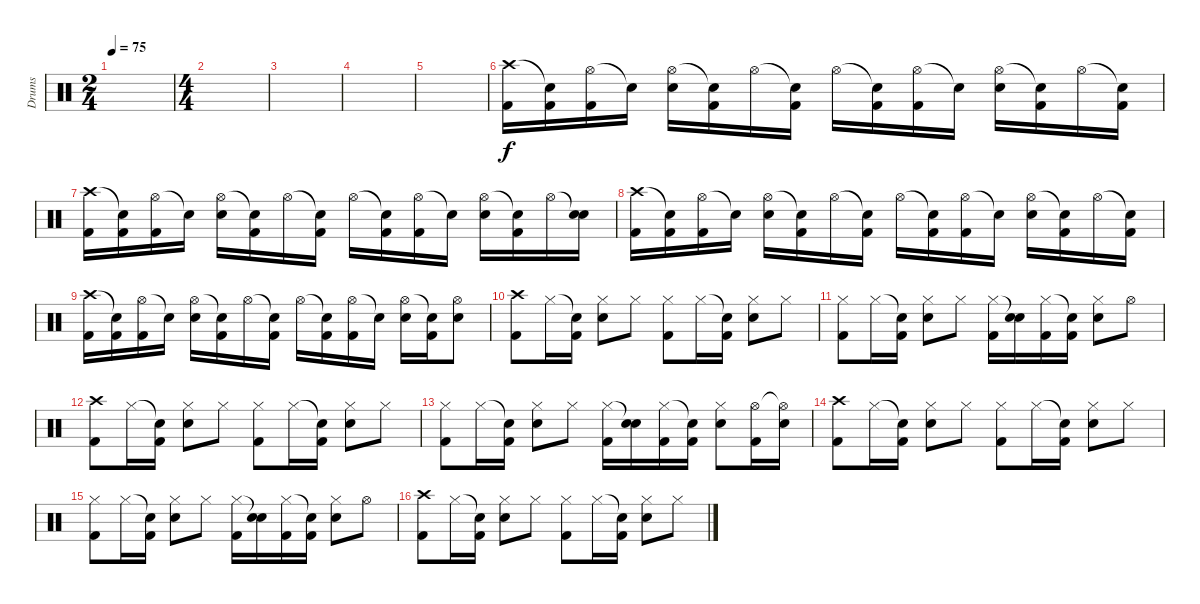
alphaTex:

\track ("Drums" "Drums") {instrument percussion}
\staff {score}
\articulation defaults
\ts (2 4)
\tempo 75
\clef neutral
\ks c
|
\ts (4 4)
|
|
|
|
("Crash high (hit)" "Kick (hit) 2").16 ("Snare (hit)"{t} "Kick (hit) 2").16 ("Hi-Hat (open)" "Kick (hit) 2").16 "Snare (hit)"{t}.16 ("Hi-Hat (open)" "Electric Snare (hit)").16 ("Snare (hit)"{t} "Kick (hit) 2").16 "Hi-Hat (open)".16 ("Snare (hit)"{t} "Kick (hit) 2").16 "Hi-Hat (open)".16 ("Snare (hit)"{t} "Kick (hit) 2").16 ("Hi-Hat (open)" "Kick (hit) 2").16 "Snare (hit)"{t}.16 ("Hi-Hat (open)" "Electric Snare (hit)").16 ("Snare (hit)"{t} "Kick (hit) 2").16 "Hi-Hat (open)".16 ("Snare (hit)"{t} "Kick (hit) 2").16 |
("Crash high (hit)" "Kick (hit) 2").16 ("Snare (hit)"{t} "Kick (hit) 2").16 ("Hi-Hat (open)" "Kick (hit) 2").16 "Snare (hit)"{t}.16 ("Hi-Hat (open)" "Electric Snare (hit)").16 ("Snare (hit)"{t} "Kick (hit) 2").16 "Hi-Hat (open)".16 ("Snare (hit)"{t} "Kick (hit) 2").16 "Hi-Hat (open)".16 ("Snare (hit)"{t} "Kick (hit) 2").16 ("Hi-Hat (open)" "Kick (hit) 2").16 "Snare (hit)"{t}.16 ("Hi-Hat (open)" "Electric Snare (hit)").16 ("Snare (hit)"{t} "Kick (hit) 2").16 "Hi-Hat (open)".16 ("Snare (hit)"{t} "Electric Snare (hit)").16 |
("Crash high (hit)" "Kick (hit) 2").16 ("Snare (hit)"{t} "Kick (hit) 2").16 ("Hi-Hat (open)" "Kick (hit) 2").16 "Snare (hit)"{t}.16 ("Hi-Hat (open)" "Electric Snare (hit)").16 ("Snare (hit)"{t} "Kick (hit) 2").16 "Hi-Hat (open)".16 ("Snare (hit)"{t} "Kick (hit) 2").16 "Hi-Hat (open)".16 ("Snare (hit)"{t} "Kick (hit) 2").16 ("Hi-Hat (open)" "Kick (hit) 2").16 "Snare (hit)"{t}.16 ("Hi-Hat (open)" "Electric Snare (hit)").16 ("Snare (hit)"{t} "Kick (hit) 2").16 "Hi-Hat (open)".16 ("Snare (hit)"{t} "Kick (hit) 2").16 |
("Crash high (hit)" "Kick (hit) 2").16 ("Snare (hit)"{t} "Kick (hit) 2").16 ("Hi-Hat (open)" "Kick (hit) 2").16 "Snare (hit)"{t}.16 ("Hi-Hat (open)" "Electric Snare (hit)").16 ("Snare (hit)"{t} "Kick (hit) 2").16 "Hi-Hat (open)".16 ("Snare (hit)"{t} "Kick (hit) 2").16 "Hi-Hat (open)".16 ("Snare (hit)"{t} "Kick (hit) 2").16 ("Hi-Hat (open)" "Kick (hit) 2").16 "Snare (hit)"{t}.16 ("Hi-Hat (open)" "Electric Snare (hit)").16 ("Snare (hit)"{t} "Kick (hit) 2").16 ("Hi-Hat (open)" "Electric Snare (hit)").8 |
("Crash high (hit)" "Kick (hit) 2").8 "Hi-Hat (closed)".16 ("Snare (hit)"{t} "Kick (hit) 2").16 ("Hi-Hat (closed)" "Electric Snare (hit)").8 "Hi-Hat (closed)".8 ("Hi-Hat (closed)" "Kick (hit) 2").8 "Hi-Hat (closed)".16 ("Snare (hit)"{t} "Kick (hit) 2").16 ("Hi-Hat (closed)" "Electric Snare (hit)").8 "Hi-Hat (closed)".8 |
("Hi-Hat (closed)" "Kick (hit) 2").8 "Hi-Hat (closed)".16 ("Snare (hit)"{t} "Kick (hit) 2").16 ("Hi-Hat (closed)" "Electric Snare (hit)").8 "Hi-Hat (closed)".8 ("Hi-Hat (closed)" "Kick (hit) 2").16 ("Snare (hit)"{t} "Electric Snare (hit)").16 ("Hi-Hat (closed)" "Kick (hit) 2").16 ("Snare (hit)"{t} "Kick (hit) 2").16 ("Hi-Hat (closed)" "Electric Snare (hit)").8 "Hi-Hat (open)".8 |
("Crash high (hit)" "Kick (hit) 2").8 "Hi-Hat (closed)".16 ("Snare (hit)"{t} "Kick (hit) 2").16 ("Hi-Hat (closed)" "Electric Snare (hit)").8 "Hi-Hat (closed)".8 ("Hi-Hat (closed)" "Kick (hit) 2").8 "Hi-Hat (closed)".16 ("Snare (hit)"{t} "Kick (hit) 2").16 ("Hi-Hat (closed)" "Electric Snare (hit)").8 "Hi-Hat (closed)".8 |
("Hi-Hat (closed)" "Kick (hit) 2").8 "Hi-Hat (closed)".16 ("Snare (hit)"{t} "Kick (hit) 2").16 ("Hi-Hat (closed)" "Electric Snare (hit)").8 "Hi-Hat (closed)".8 ("Hi-Hat (closed)" "Kick (hit) 2").16 ("Snare (hit)"{t} "Electric Snare (hit)").16 ("Hi-Hat (closed)" "Kick (hit) 2").16 ("Snare (hit)"{t} "Kick (hit) 2").16 ("Hi-Hat (closed)" "Electric Snare (hit)").8 ("Hi-Hat (open)" "Kick (hit) 2").16 ("Hi-Hat (open)"{t} "Electric Snare (hit)").16 |
("Crash high (hit)" "Kick (hit) 2").8 "Hi-Hat (closed)".16 ("Snare (hit)"{t} "Kick (hit) 2").16 ("Hi-Hat (closed)" "Electric Snare (hit)").8 "Hi-Hat (closed)".8 ("Hi-Hat (closed)" "Kick (hit) 2").8 "Hi-Hat (closed)".16 ("Snare (hit)"{t} "Kick (hit) 2").16 ("Hi-Hat (closed)" "Electric Snare (hit)").8 "Hi-Hat (closed)".8 |
("Hi-Hat (closed)" "Kick (hit) 2").8 "Hi-Hat (closed)".16 ("Snare (hit)"{t} "Kick (hit) 2").16 ("Hi-Hat (closed)" "Electric Snare (hit)").8 "Hi-Hat (closed)".8 ("Hi-Hat (closed)" "Kick (hit) 2").16 ("Snare (hit)"{t} "Electric Snare (hit)").16 ("Hi-Hat (closed)" "Kick (hit) 2").16 ("Snare (hit)"{t} "Kick (hit) 2").16 ("Hi-Hat (closed)" "Electric Snare (hit)").8 "Hi-Hat (open)".8 |
("Crash high (hit)" "Kick (hit) 2").8 "Hi-Hat (closed)".16 ("Snare (hit)"{t} "Kick (hit) 2").16 ("Hi-Hat (closed)" "Electric Snare (hit)").8 "Hi-Hat (closed)".8 ("Hi-Hat (closed)" "Kick (hit) 2").8 "Hi-Hat (closed)".16 ("Snare (hit)"{t} "Kick (hit) 2").16 ("Hi-Hat (closed)" "Electric Snare (hit)").8 "Hi-Hat (closed)".8
